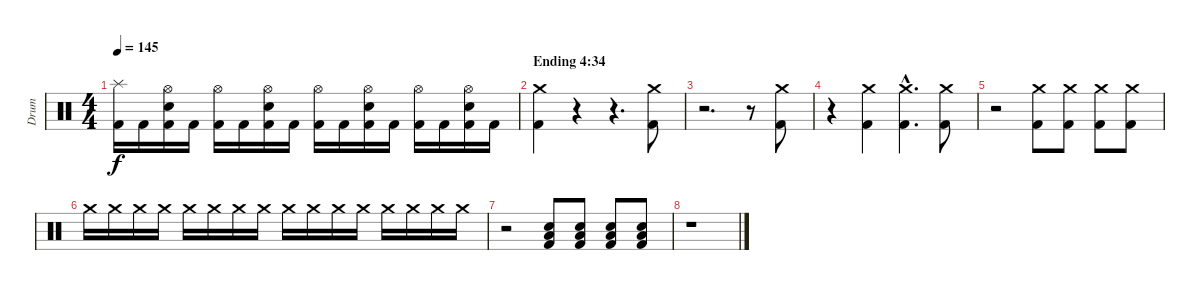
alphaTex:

\track ("Drum" "Drum") {instrument percussion}
\staff {score}
\articulation defaults
\ts (4 4)
\tempo 145
\clef neutral
\ks c
("Splash (hit)" "Kick (hit) 2").16{dy f} "Kick (hit) 2".16 ("Hi-Hat (open)" "Snare (hit) 2" "Kick (hit) 2").16 "Kick (hit) 2".16 ("Hi-Hat (open)" "Kick (hit) 2").16 "Kick (hit) 2".16 ("Hi-Hat (open)" "Snare (hit) 2" "Kick (hit) 2").16 "Kick (hit) 2".16 ("Hi-Hat (open)" "Kick (hit) 2").16 "Kick (hit) 2".16 ("Hi-Hat (open)" "Snare (hit) 2" "Kick (hit) 2").16 "Kick (hit) 2".16 ("Hi-Hat (open)" "Kick (hit) 2").16 "Kick (hit) 2".16 ("Hi-Hat (open)" "Snare (hit) 2" "Kick (hit) 2").16 "Kick (hit) 2".16 |
\section ("" "Ending 4:34")
("Crash medium (hit)" "Kick (hit) 2").4 r.4 r.4{d} ("Crash medium (hit)" "Kick (hit) 2").8 |
r.2{d} r.8 ("Crash medium (hit)" "Kick (hit) 2").8 |
r.4 ("Crash medium (hit)" "Kick (hit) 2").4 ("Crash medium (hit)"{hac} "Kick (hit) 2"{hac}).4{d} ("Crash medium (hit)" "Kick (hit) 2").8 |
r.2 ("Crash medium (hit)" "Kick (hit) 2").8 ("Crash medium (hit)" "Kick (hit) 2").8 ("Crash medium (hit)" "Kick (hit) 2").8 ("Crash medium (hit)" "Kick (hit) 2").8 |
"Crash medium (hit)".16{volume 1} "Crash medium (hit)".16{volume 2} "Crash medium (hit)".16{volume 3} "Crash medium (hit)".16{volume 4} "Crash medium (hit)".16{volume 5} "Crash medium (hit)".16{volume 6} "Crash medium (hit)".16{volume 7} "Crash medium (hit)".16{volume 8} "Crash medium (hit)".16{volume 9} "Crash medium (hit)".16{volume 10} "Crash medium (hit)".16{volume 11} "Crash medium (hit)".16{volume 12} "Crash medium (hit)".16{volume 13} "Crash medium (hit)".16{volume 14} "Crash medium (hit)".16{volume 15} "Crash medium (hit)".16 |
r.2 ("Low Floor Tom (hit)" "Snare (hit) 2" "Kick (hit) 2").8 ("Low Floor Tom (hit)" "Snare (hit) 2" "Kick (hit) 2").8 ("Low Floor Tom (hit)" "Snare (hit) 2" "Kick (hit) 2").8 ("Low Floor Tom (hit)" "Snare (hit) 2" "Kick (hit) 2").8 |
r.1
